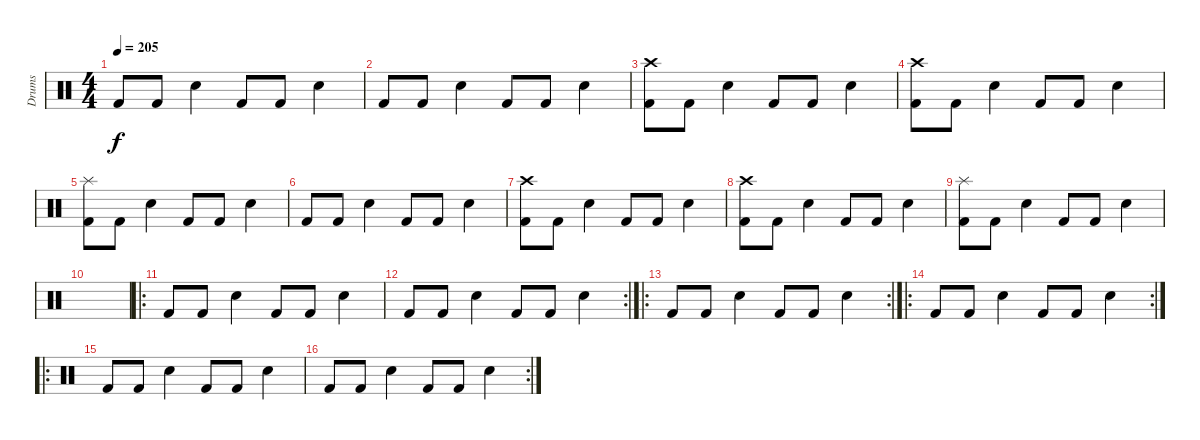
\track ("Drums " "Drums ") {instrument percussion}
\staff {score}
\articulation defaults
\ts (4 4)
\tempo 205
\clef neutral
\ks c "Kick (hit) 2".8{dy f} "Kick (hit) 2".8 "Electric Snare (hit)".4 "Kick (hit) 2".8 "Kick (hit) 2".8 "Electric Snare (hit)".4
|
"Kick (hit) 2".8 "Kick (hit) 2".8 "Electric Snare (hit)".4 "Kick (hit) 2".8 "Kick (hit) 2".8 "Electric Snare (hit)".4 |
("Crash high (hit)" "Kick (hit) 2").8 "Kick (hit) 2".8 "Electric Snare (hit)".4 "Kick (hit) 2".8 "Kick (hit) 2".8 "Electric Snare (hit)".4 |
("Crash high (hit)" "Kick (hit) 2").8 "Kick (hit) 2".8 "Electric Snare (hit)".4 "Kick (hit) 2".8 "Kick (hit) 2".8 "Electric Snare (hit)".4 |
("Splash (hit)" "Kick (hit) 2").8 "Kick (hit) 2".8 "Electric Snare (hit)".4 "Kick (hit) 2".8 "Kick (hit) 2".8 "Electric Snare (hit)".4 |
"Kick (hit) 2".8 "Kick (hit) 2".8 "Electric Snare (hit)".4 "Kick (hit) 2".8 "Kick (hit) 2".8 "Electric Snare (hit)".4 |
("Crash high (hit)" "Kick (hit) 2").8 "Kick (hit) 2".8 "Electric Snare (hit)".4 "Kick (hit) 2".8 "Kick (hit) 2".8 "Electric Snare (hit)".4 |
("Crash high (hit)" "Kick (hit) 2").8 "Kick (hit) 2".8 "Electric Snare (hit)".4 "Kick (hit) 2".8 "Kick (hit) 2".8 "Electric Snare (hit)".4 |
("Splash (hit)" "Kick (hit) 2").8 "Kick (hit) 2".8 "Electric Snare (hit)".4 "Kick (hit) 2".8 "Kick (hit) 2".8 "Electric Snare (hit)".4 |
|
\ro "Kick (hit) 2".8 "Kick (hit) 2".8 "Electric Snare (hit)".4 "Kick (hit) 2".8 "Kick (hit) 2".8 "Electric Snare (hit)".4
|
\rc 2 "Kick (hit) 2".8 "Kick (hit) 2".8 "Electric Snare (hit)".4 "Kick (hit) 2".8 "Kick (hit) 2".8 "Electric Snare (hit)".4
|
\ro
\rc 2 "Kick (hit) 2".8 "Kick (hit) 2".8 "Electric Snare (hit)".4 "Kick (hit) 2".8 "Kick (hit) 2".8 "Electric Snare (hit)".4
|
\ro
\rc 2 "Kick (hit) 2".8 "Kick (hit) 2".8 "Electric Snare (hit)".4 "Kick (hit) 2".8 "Kick (hit) 2".8 "Electric Snare (hit)".4
|
\ro "Kick (hit) 2".8 "Kick (hit) 2".8 "Electric Snare (hit)".4 "Kick (hit) 2".8 "Kick (hit) 2".8 "Electric Snare (hit)".4
|
\rc 2 "Kick (hit) 2".8 "Kick (hit) 2".8 "Electric Snare (hit)".4 "Kick (hit) 2".8 "Kick (hit) 2".8 "Electric Snare (hit)".4
